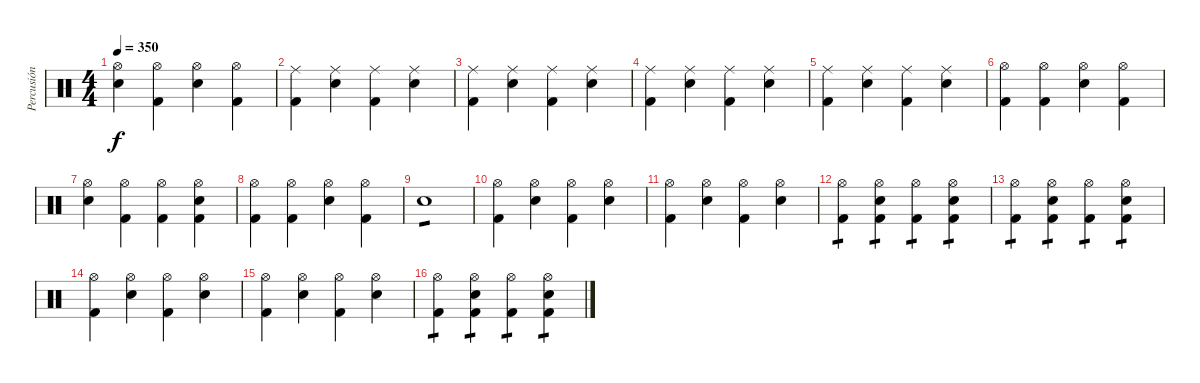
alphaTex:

\track ("Percusión" "Percusión") {instrument percussion}
\staff {score}
\articulation defaults
\ts (4 4)
\tempo 350
\clef neutral
\ks c
("Hi-Hat (open)" "Electric Snare (hit)").4{dy f} ("Hi-Hat (open)" "Kick (hit) 2").4 ("Hi-Hat (open)" "Electric Snare (hit)").4 ("Hi-Hat (open)" "Kick (hit) 2").4 |
("Ride (middle)" "Kick (hit) 2").4 ("Ride (middle)" "Electric Snare (hit)").4 ("Ride (middle)" "Kick (hit) 2").4 ("Ride (middle)" "Electric Snare (hit)").4 |
("Ride (middle)" "Kick (hit) 2").4 ("Ride (middle)" "Electric Snare (hit)").4 ("Ride (middle)" "Kick (hit) 2").4 ("Ride (middle)" "Electric Snare (hit)").4 |
("Ride (middle)" "Kick (hit) 2").4 ("Ride (middle)" "Electric Snare (hit)").4 ("Ride (middle)" "Kick (hit) 2").4 ("Ride (middle)" "Electric Snare (hit)").4 |
("Ride (middle)" "Kick (hit) 2").4 ("Ride (middle)" "Electric Snare (hit)").4 ("Ride (middle)" "Kick (hit) 2").4 ("Ride (middle)" "Electric Snare (hit)").4 |
("Hi-Hat (open)" "Kick (hit) 2").4 ("Hi-Hat (open)" "Kick (hit) 2").4 ("Hi-Hat (open)" "Electric Snare (hit)").4 ("Hi-Hat (open)" "Kick (hit) 2").4 |
("Hi-Hat (open)" "Electric Snare (hit)").4 ("Hi-Hat (open)" "Kick (hit) 2").4 ("Hi-Hat (open)" "Kick (hit) 2").4 ("Hi-Hat (open)" "Electric Snare (hit)" "Kick (hit) 2").4 |
("Hi-Hat (open)" "Kick (hit) 2").4 ("Hi-Hat (open)" "Kick (hit) 2").4 ("Hi-Hat (open)" "Electric Snare (hit)").4 ("Hi-Hat (open)" "Kick (hit) 2").4 |
"Electric Snare (hit)".1{tp 1} |
("Hi-Hat (open)" "Kick (hit) 2").4 ("Hi-Hat (open)" "Electric Snare (hit)").4 ("Hi-Hat (open)" "Kick (hit) 2").4 ("Hi-Hat (open)" "Electric Snare (hit)").4 |
("Hi-Hat (open)" "Kick (hit) 2").4 ("Hi-Hat (open)" "Electric Snare (hit)").4 ("Hi-Hat (open)" "Kick (hit) 2").4 ("Hi-Hat (open)" "Electric Snare (hit)").4 |
("Hi-Hat (open)" "Kick (hit) 2").4{tp 1} ("Hi-Hat (open)" "Electric Snare (hit)" "Kick (hit) 2").4{tp 1} ("Hi-Hat (open)" "Kick (hit) 2").4{tp 1} ("Hi-Hat (open)" "Electric Snare (hit)" "Kick (hit) 2").4{tp 1} |
("Hi-Hat (open)" "Kick (hit) 2").4{tp 1} ("Hi-Hat (open)" "Electric Snare (hit)" "Kick (hit) 2").4{tp 1} ("Hi-Hat (open)" "Kick (hit) 2").4{tp 1} ("Hi-Hat (open)" "Electric Snare (hit)" "Kick (hit) 2").4{tp 1} |
("Hi-Hat (open)" "Kick (hit) 2").4 ("Hi-Hat (open)" "Electric Snare (hit)").4 ("Hi-Hat (open)" "Kick (hit) 2").4 ("Hi-Hat (open)" "Electric Snare (hit)").4 |
("Hi-Hat (open)" "Kick (hit) 2").4 ("Hi-Hat (open)" "Electric Snare (hit)").4 ("Hi-Hat (open)" "Kick (hit) 2").4 ("Hi-Hat (open)" "Electric Snare (hit)").4 |
("Hi-Hat (open)" "Kick (hit) 2").4{tp 1} ("Hi-Hat (open)" "Electric Snare (hit)" "Kick (hit) 2").4{tp 1} ("Hi-Hat (open)" "Kick (hit) 2").4{tp 1} ("Hi-Hat (open)" "Electric Snare (hit)" "Kick (hit) 2").4{tp 1}
